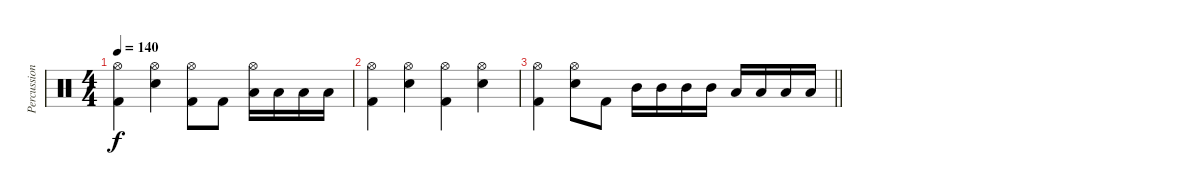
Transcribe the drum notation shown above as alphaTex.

\track ("Percussion" "Percussion") {instrument percussion}
\staff {score}
\articulation defaults
\ts (4 4)
\tempo 140
\clef neutral
\ks c
("Hi-Hat (open)" "Kick (hit) 2").4{dy f} ("Hi-Hat (open)" "Snare (hit) 2").4 ("Hi-Hat (open)" "Kick (hit) 2").8 "Kick (hit) 2".8 ("Hi-Hat (open)" "Low Tom (hit)").16 "Low Tom (hit)".16 "Low Tom (hit)".16 "Low Tom (hit)".16 |
("Hi-Hat (open)" "Kick (hit) 2").4 ("Hi-Hat (open)" "Snare (hit) 2").4 ("Hi-Hat (open)" "Kick (hit) 2").4 ("Hi-Hat (open)" "Snare (hit) 2").4 |
\barLineRight lightlight
("Hi-Hat (open)" "Kick (hit) 2").4 ("Hi-Hat (open)" "Snare (hit) 2").8 "Kick (hit) 2".8 "Mid Tom (hit)".16 "Mid Tom (hit)".16 "Mid Tom (hit)".16 "Mid Tom (hit)".16 "Low Tom (hit)".16 "Low Tom (hit)".16 "Low Tom (hit)".16 "Low Tom (hit)".16
